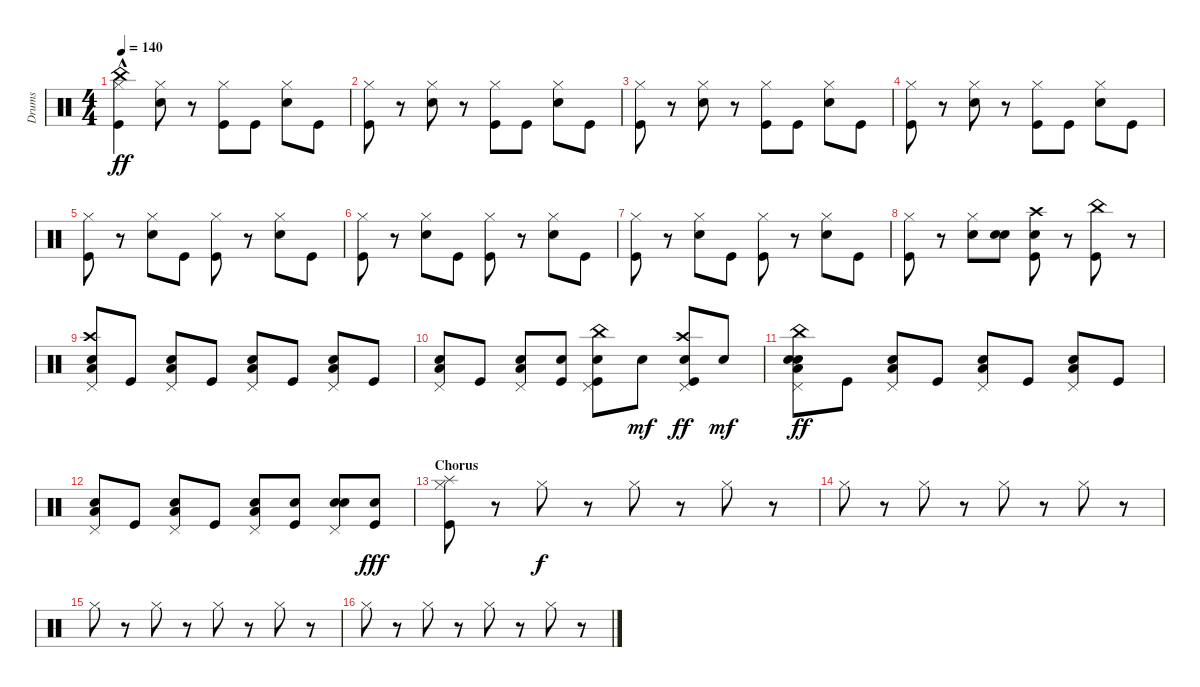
\track ("Drums" "Drums") {instrument percussion}
\staff {score}
\articulation defaults
\ts (4 4)
\tempo 140
\clef neutral
\ks c
("China (hit)"{hac} "Hi-Hat (closed)" "Kick (hit)").4{dy ff} ("Hi-Hat (closed)" "Snare (hit) 2").8 r.8 ("Hi-Hat (closed)" "Kick (hit)").8 "Kick (hit)".8 ("Hi-Hat (closed)" "Snare (hit) 2").8 "Kick (hit)".8 |
("Hi-Hat (closed)" "Kick (hit)").8 r.8 ("Hi-Hat (closed)" "Snare (hit) 2").8 r.8 ("Hi-Hat (closed)" "Kick (hit)").8 "Kick (hit)".8 ("Hi-Hat (closed)" "Snare (hit) 2").8 "Kick (hit)".8 |
("Hi-Hat (closed)" "Kick (hit)").8 r.8 ("Hi-Hat (closed)" "Snare (hit) 2").8 r.8 ("Hi-Hat (closed)" "Kick (hit)").8 "Kick (hit)".8 ("Hi-Hat (closed)" "Snare (hit) 2").8 "Kick (hit)".8 |
("Hi-Hat (closed)" "Kick (hit)").8 r.8 ("Hi-Hat (closed)" "Snare (hit) 2").8 r.8 ("Hi-Hat (closed)" "Kick (hit)").8 "Kick (hit)".8 ("Hi-Hat (closed)" "Snare (hit) 2").8 "Kick (hit)".8 |
("Kick (hit)" "Hi-Hat (closed)").8 r.8 ("Hi-Hat (closed)" "Snare (hit) 2").8 "Kick (hit)".8 ("Hi-Hat (closed)" "Kick (hit)").8 r.8 ("Hi-Hat (closed)" "Snare (hit) 2").8 "Kick (hit)".8 |
("Hi-Hat (closed)" "Kick (hit)").8 r.8 ("Hi-Hat (closed)" "Snare (hit) 2").8 "Kick (hit)".8 ("Hi-Hat (closed)" "Kick (hit)").8 r.8 ("Hi-Hat (closed)" "Snare (hit) 2").8 "Kick (hit)".8 |
("Kick (hit)" "Hi-Hat (closed)").8 r.8 ("Hi-Hat (closed)" "Snare (hit) 2").8 "Kick (hit)".8 ("Hi-Hat (closed)" "Kick (hit)").8 r.8 ("Hi-Hat (closed)" "Snare (hit) 2").8 "Kick (hit)".8 |
("Hi-Hat (closed)" "Kick (hit)").8 r.8 ("Hi-Hat (closed)" "Snare (hit) 2").8 ("Snare (hit) 2" "Snare (hit) 2").8 ("Snare (hit) 2" "Crash high (hit)" "Kick (hit)").8 r.8 ("Kick (hit)" "China (hit)").8 r.8 |
("Crash high (hit)" "Pedal Hi-Hat (hit)" "Snare (hit) 2" "Low Floor Tom (hit)").8 "Kick (hit)".8 ("Snare (hit) 2" "Pedal Hi-Hat (hit)" "Low Floor Tom (hit)").8 "Kick (hit)".8 ("Snare (hit) 2" "Pedal Hi-Hat (hit)" "Low Floor Tom (hit)").8 "Kick (hit)".8 ("Snare (hit) 2" "Pedal Hi-Hat (hit)" "Low Floor Tom (hit)").8 "Kick (hit)".8 |
("Snare (hit) 2" "Pedal Hi-Hat (hit)" "Low Floor Tom (hit)").8 "Kick (hit)".8 ("Snare (hit) 2" "Pedal Hi-Hat (hit)" "Low Floor Tom (hit)").8 ("Snare (hit) 2" "Kick (hit)").8 ("Snare (hit) 2" "Kick (hit)" "China (hit)" "Pedal Hi-Hat (hit)").8 "Snare (hit) 2".8{dy mf} ("Snare (hit) 2" "Crash high (hit)" "Pedal Hi-Hat (hit)" "Kick (hit)").8{dy ff} "Snare (hit) 2".8{dy mf} |
("Snare (hit) 2" "Snare (hit) 2" "China (hit)" "Pedal Hi-Hat (hit)" "Low Floor Tom (hit)").8{dy ff} "Kick (hit)".8 ("Snare (hit) 2" "Pedal Hi-Hat (hit)" "Low Floor Tom (hit)").8 "Kick (hit)".8 ("Snare (hit) 2" "Pedal Hi-Hat (hit)" "Low Floor Tom (hit)").8 "Kick (hit)".8 ("Snare (hit) 2" "Pedal Hi-Hat (hit)" "Low Floor Tom (hit)").8 "Kick (hit)".8 |
("Snare (hit) 2" "Pedal Hi-Hat (hit)" "Low Floor Tom (hit)").8 "Kick (hit)".8 ("Snare (hit) 2" "Pedal Hi-Hat (hit)" "Low Floor Tom (hit)").8 "Kick (hit)".8 ("Snare (hit) 2" "Pedal Hi-Hat (hit)" "Low Floor Tom (hit)").8 ("Snare (hit) 2" "Kick (hit)").8 ("Snare (hit) 2" "Pedal Hi-Hat (hit)" "Snare (hit) 2").8 ("Snare (hit) 2" "Kick (hit)").8{dy fff} |
\section ("" "Chorus")
("Kick (hit)" "Splash (hit)" "Hi-Hat (closed)").8 r.8 "Hi-Hat (closed)".8{dy f} r.8 "Hi-Hat (closed)".8 r.8 "Hi-Hat (closed)".8 r.8 |
"Hi-Hat (closed)".8 r.8 "Hi-Hat (closed)".8 r.8 "Hi-Hat (closed)".8 r.8 "Hi-Hat (closed)".8 r.8 |
"Hi-Hat (closed)".8 r.8 "Hi-Hat (closed)".8 r.8 "Hi-Hat (closed)".8 r.8 "Hi-Hat (closed)".8 r.8 |
"Hi-Hat (closed)".8 r.8 "Hi-Hat (closed)".8 r.8 "Hi-Hat (closed)".8 r.8 "Hi-Hat (closed)".8 r.8
